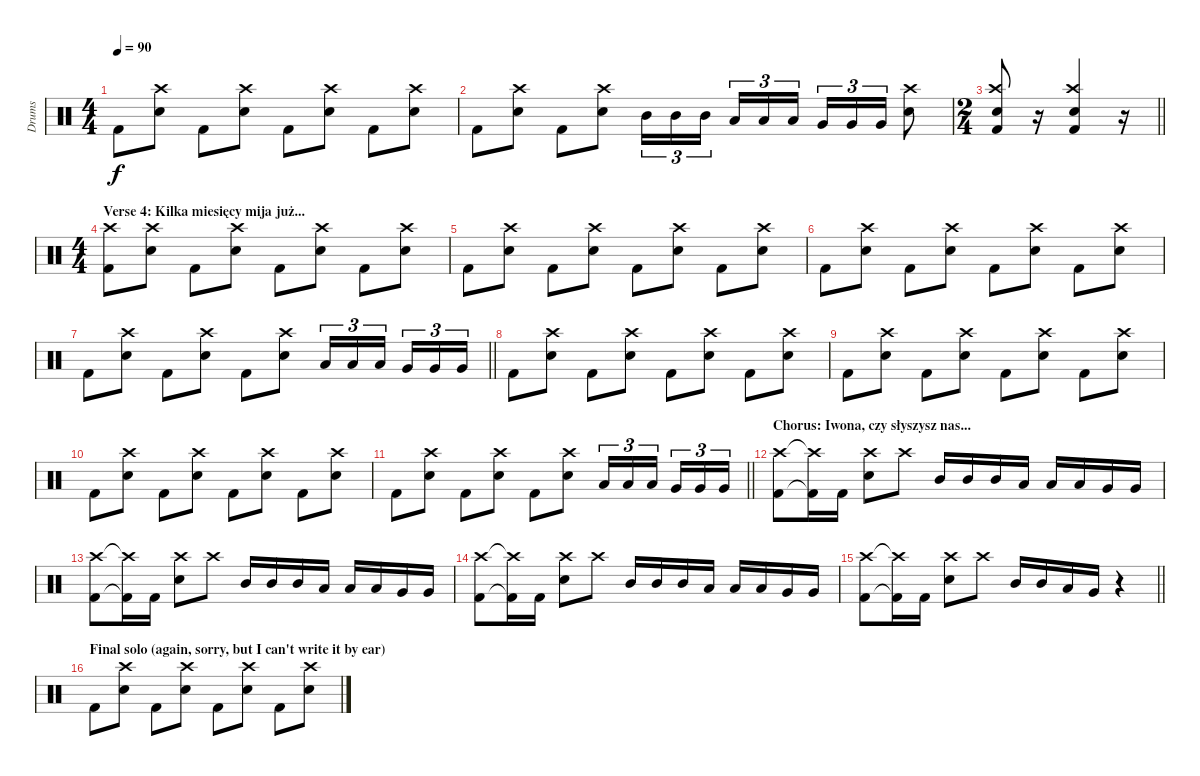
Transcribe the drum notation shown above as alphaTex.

\track ("Drums" "Drums") {instrument percussion}
\staff {score}
\articulation defaults
\ts (4 4)
\tempo 90
\clef neutral
\ks c "Kick (hit) 2".8{dy f}
("Crash high (hit)" "Snare (hit) 2").8 "Kick (hit) 2".8 ("Crash high (hit)" "Snare (hit) 2").8 "Kick (hit) 2".8 ("Crash high (hit)" "Snare (hit) 2").8 "Kick (hit) 2".8 ("Crash high (hit)" "Snare (hit) 2").8 |
"Kick (hit) 2".8 ("Crash high (hit)" "Snare (hit) 2").8 "Kick (hit) 2".8 ("Crash high (hit)" "Snare (hit) 2").8 "Mid Tom (hit)".16{tu (3 2)} "Mid Tom (hit)".16{tu (3 2)} "Mid Tom (hit)".16{tu (3 2) beam splitsecondary} "Low Tom (hit)".16{tu (3 2)} "Low Tom (hit)".16{tu (3 2)} "Low Tom (hit)".16{tu (3 2)} "Very Low Tom (hit)".16{tu (3 2)} "Very Low Tom (hit)".16{tu (3 2)} "Very Low Tom (hit)".16{tu (3 2)} ("Crash high (hit)" "Snare (hit) 2").8 |
\ts (2 4)
\barLineRight lightlight
("Crash high (hit)" "Snare (hit) 2" "Kick (hit) 2").8 r.16 ("Crash high (hit)" "Snare (hit) 2" "Kick (hit) 2").4 r.16 |
\ts (4 4)
\section ("" "Verse 4: Kilka miesięcy mija już...")
("Crash high (hit)" "Kick (hit) 2").8 ("Crash high (hit)" "Snare (hit) 2").8 "Kick (hit) 2".8 ("Crash high (hit)" "Snare (hit) 2").8 "Kick (hit) 2".8 ("Crash high (hit)" "Snare (hit) 2").8 "Kick (hit) 2".8 ("Crash high (hit)" "Snare (hit) 2").8 |
"Kick (hit) 2".8 ("Crash high (hit)" "Snare (hit) 2").8 "Kick (hit) 2".8 ("Crash high (hit)" "Snare (hit) 2").8 "Kick (hit) 2".8 ("Crash high (hit)" "Snare (hit) 2").8 "Kick (hit) 2".8 ("Crash high (hit)" "Snare (hit) 2").8 |
"Kick (hit) 2".8 ("Crash high (hit)" "Snare (hit) 2").8 "Kick (hit) 2".8 ("Crash high (hit)" "Snare (hit) 2").8 "Kick (hit) 2".8 ("Crash high (hit)" "Snare (hit) 2").8 "Kick (hit) 2".8 ("Crash high (hit)" "Snare (hit) 2").8 |
\barLineRight lightlight "Kick (hit) 2".8
("Crash high (hit)" "Snare (hit) 2").8 "Kick (hit) 2".8 ("Crash high (hit)" "Snare (hit) 2").8 "Kick (hit) 2".8 ("Crash high (hit)" "Snare (hit) 2").8 "Low Tom (hit)".16{tu (3 2)} "Low Tom (hit)".16{tu (3 2)} "Low Tom (hit)".16{tu (3 2) beam splitsecondary} "Very Low Tom (hit)".16{tu (3 2)} "Very Low Tom (hit)".16{tu (3 2)} "Very Low Tom (hit)".16{tu (3 2)} |
"Kick (hit) 2".8 ("Crash high (hit)" "Snare (hit) 2").8 "Kick (hit) 2".8 ("Crash high (hit)" "Snare (hit) 2").8 "Kick (hit) 2".8 ("Crash high (hit)" "Snare (hit) 2").8 "Kick (hit) 2".8 ("Crash high (hit)" "Snare (hit) 2").8 |
"Kick (hit) 2".8 ("Crash high (hit)" "Snare (hit) 2").8 "Kick (hit) 2".8 ("Crash high (hit)" "Snare (hit) 2").8 "Kick (hit) 2".8 ("Crash high (hit)" "Snare (hit) 2").8 "Kick (hit) 2".8 ("Crash high (hit)" "Snare (hit) 2").8 |
"Kick (hit) 2".8 ("Crash high (hit)" "Snare (hit) 2").8 "Kick (hit) 2".8 ("Crash high (hit)" "Snare (hit) 2").8 "Kick (hit) 2".8 ("Crash high (hit)" "Snare (hit) 2").8 "Kick (hit) 2".8 ("Crash high (hit)" "Snare (hit) 2").8 |
\barLineRight lightlight "Kick (hit) 2".8
("Crash high (hit)" "Snare (hit) 2").8 "Kick (hit) 2".8 ("Crash high (hit)" "Snare (hit) 2").8 "Kick (hit) 2".8 ("Crash high (hit)" "Snare (hit) 2").8 "Low Tom (hit)".16{tu (3 2)} "Low Tom (hit)".16{tu (3 2)} "Low Tom (hit)".16{tu (3 2) beam splitsecondary} "Very Low Tom (hit)".16{tu (3 2)} "Very Low Tom (hit)".16{tu (3 2)} "Very Low Tom (hit)".16{tu (3 2)} |
\section ("" "Chorus: Iwona, czy słyszysz nas...")
("Crash high (hit)" "Kick (hit) 2").8 ("Crash high (hit)"{t} "Kick (hit) 2"{t}).16 "Kick (hit) 2".16 ("Crash high (hit)" "Snare (hit) 2").8 "Crash high (hit)".8 "Mid Tom (hit)".16 "Mid Tom (hit)".16 "Mid Tom (hit)".16 "Low Tom (hit)".16 "Low Tom (hit)".16 "Low Tom (hit)".16 "Very Low Tom (hit)".16 "Very Low Tom (hit)".16 |
("Crash high (hit)" "Kick (hit) 2").8 ("Crash high (hit)"{t} "Kick (hit) 2"{t}).16 "Kick (hit) 2".16 ("Crash high (hit)" "Snare (hit) 2").8 "Crash high (hit)".8 "Mid Tom (hit)".16 "Mid Tom (hit)".16 "Mid Tom (hit)".16 "Low Tom (hit)".16 "Low Tom (hit)".16 "Low Tom (hit)".16 "Very Low Tom (hit)".16 "Very Low Tom (hit)".16 |
("Crash high (hit)" "Kick (hit) 2").8 ("Crash high (hit)"{t} "Kick (hit) 2"{t}).16 "Kick (hit) 2".16 ("Crash high (hit)" "Snare (hit) 2").8 "Crash high (hit)".8 "Mid Tom (hit)".16 "Mid Tom (hit)".16 "Mid Tom (hit)".16 "Low Tom (hit)".16 "Low Tom (hit)".16 "Low Tom (hit)".16 "Very Low Tom (hit)".16 "Very Low Tom (hit)".16 |
\barLineRight lightlight
("Crash high (hit)" "Kick (hit) 2").8 ("Crash high (hit)"{t} "Kick (hit) 2"{t}).16 "Kick (hit) 2".16 ("Crash high (hit)" "Snare (hit) 2").8 "Crash high (hit)".8 "Mid Tom (hit)".16 "Mid Tom (hit)".16 "Low Tom (hit)".16 "Very Low Tom (hit)".16 r.4 |
\section ("" "Final solo (again, sorry, but I can't write it by ear)")
"Kick (hit) 2".8 ("Crash high (hit)" "Snare (hit) 2").8 "Kick (hit) 2".8 ("Crash high (hit)" "Snare (hit) 2").8 "Kick (hit) 2".8 ("Crash high (hit)" "Snare (hit) 2").8 "Kick (hit) 2".8 ("Crash high (hit)" "Snare (hit) 2").8
